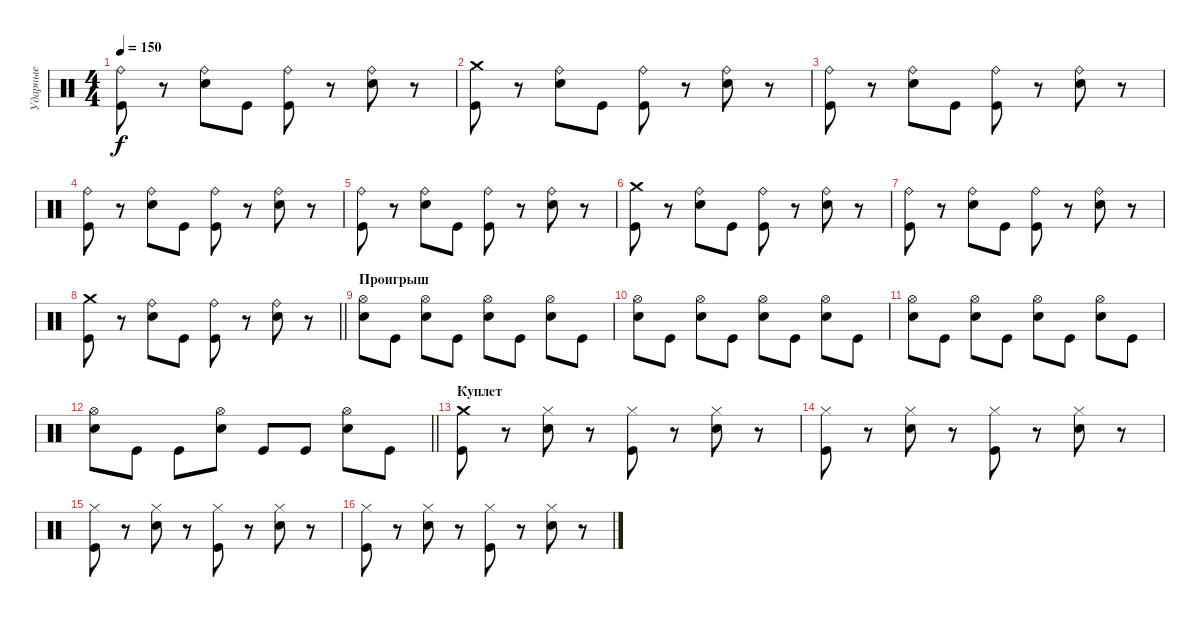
\track ("Ударные" "Ударные") {instrument percussion}
\staff {score}
\articulation defaults
\ts (4 4)
\tempo 150
\clef neutral
\ks c
("Ride (bell)" "Kick (hit)").8{dy f} r.8 ("Ride (bell)" "Electric Snare (hit)").8 "Kick (hit)".8 ("Ride (bell)" "Kick (hit)").8 r.8 ("Ride (bell)" "Electric Snare (hit)").8 r.8 |
("Crash medium (hit)" "Kick (hit)").8 r.8 ("Ride (bell)" "Electric Snare (hit)").8 "Kick (hit)".8 ("Ride (bell)" "Kick (hit)").8 r.8 ("Ride (bell)" "Electric Snare (hit)").8 r.8 |
("Ride (bell)" "Kick (hit)").8 r.8 ("Ride (bell)" "Electric Snare (hit)").8 "Kick (hit)".8 ("Ride (bell)" "Kick (hit)").8 r.8 ("Ride (bell)" "Electric Snare (hit)").8 r.8 |
("Ride (bell)" "Kick (hit)").8 r.8 ("Ride (bell)" "Electric Snare (hit)").8 "Kick (hit)".8 ("Ride (bell)" "Kick (hit)").8 r.8 ("Ride (bell)" "Electric Snare (hit)").8 r.8 |
("Ride (bell)" "Kick (hit)").8 r.8 ("Ride (bell)" "Electric Snare (hit)").8 "Kick (hit)".8 ("Ride (bell)" "Kick (hit)").8 r.8 ("Ride (bell)" "Electric Snare (hit)").8 r.8 |
("Crash medium (hit)" "Kick (hit)").8 r.8 ("Ride (bell)" "Electric Snare (hit)").8 "Kick (hit)".8 ("Ride (bell)" "Kick (hit)").8 r.8 ("Ride (bell)" "Electric Snare (hit)").8 r.8 |
("Ride (bell)" "Kick (hit)").8 r.8 ("Ride (bell)" "Electric Snare (hit)").8 "Kick (hit)".8 ("Ride (bell)" "Kick (hit)").8 r.8 ("Ride (bell)" "Electric Snare (hit)").8 r.8 |
\barLineRight lightlight
("Crash medium (hit)" "Kick (hit)").8 r.8 ("Ride (bell)" "Electric Snare (hit)").8 "Kick (hit)".8 ("Ride (bell)" "Kick (hit)").8 r.8 ("Ride (bell)" "Electric Snare (hit)").8 r.8 |
\section ("" "Проигрыш")
("Hi-Hat (open)" "Electric Snare (hit)").8 "Kick (hit)".8 ("Hi-Hat (open)" "Electric Snare (hit)").8 "Kick (hit)".8 ("Hi-Hat (open)" "Electric Snare (hit)").8 "Kick (hit)".8 ("Hi-Hat (open)" "Electric Snare (hit)").8 "Kick (hit)".8 |
("Hi-Hat (open)" "Electric Snare (hit)").8 "Kick (hit)".8 ("Hi-Hat (open)" "Electric Snare (hit)").8 "Kick (hit)".8 ("Hi-Hat (open)" "Electric Snare (hit)").8 "Kick (hit)".8 ("Hi-Hat (open)" "Electric Snare (hit)").8 "Kick (hit)".8 |
("Hi-Hat (open)" "Electric Snare (hit)").8 "Kick (hit)".8 ("Hi-Hat (open)" "Electric Snare (hit)").8 "Kick (hit)".8 ("Hi-Hat (open)" "Electric Snare (hit)").8 "Kick (hit)".8 ("Hi-Hat (open)" "Electric Snare (hit)").8 "Kick (hit)".8 |
\barLineRight lightlight
("Hi-Hat (open)" "Electric Snare (hit)").8 "Kick (hit)".8 "Kick (hit)".8 ("Hi-Hat (open)" "Electric Snare (hit)").8 "Kick (hit)".8 "Kick (hit)".8 ("Hi-Hat (open)" "Electric Snare (hit)").8 "Kick (hit)".8 |
\section ("" "Куплет")
("Crash medium (hit)" "Kick (hit)").8 r.8 ("Hi-Hat (closed)" "Electric Snare (hit)").8 r.8 ("Hi-Hat (closed)" "Kick (hit)").8 r.8 ("Hi-Hat (closed)" "Electric Snare (hit)").8 r.8 |
("Hi-Hat (closed)" "Kick (hit)").8 r.8 ("Hi-Hat (closed)" "Electric Snare (hit)").8 r.8 ("Hi-Hat (closed)" "Kick (hit)").8 r.8 ("Hi-Hat (closed)" "Electric Snare (hit)").8 r.8 |
("Hi-Hat (closed)" "Kick (hit)").8 r.8 ("Hi-Hat (closed)" "Electric Snare (hit)").8 r.8 ("Hi-Hat (closed)" "Kick (hit)").8 r.8 ("Hi-Hat (closed)" "Electric Snare (hit)").8 r.8 |
("Hi-Hat (closed)" "Kick (hit)").8 r.8 ("Hi-Hat (closed)" "Electric Snare (hit)").8 r.8 ("Hi-Hat (closed)" "Kick (hit)").8 r.8 ("Hi-Hat (closed)" "Electric Snare (hit)").8 r.8
